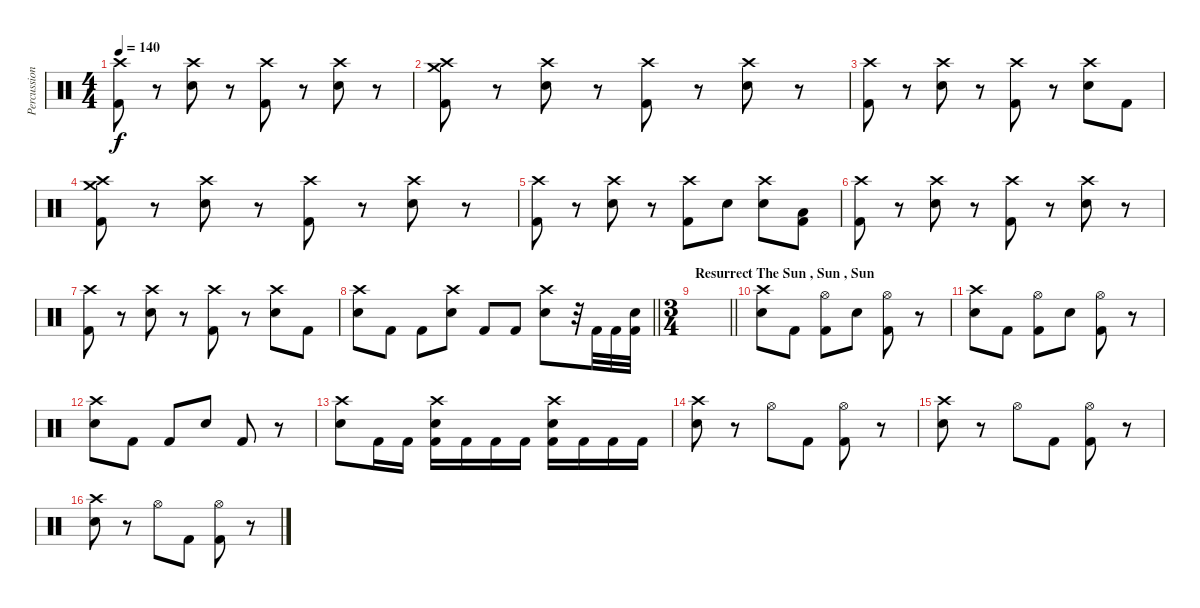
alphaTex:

\track ("Percussion" "Percussion") {instrument percussion}
\staff {score}
\articulation defaults
\ts (4 4)
\tempo 140
\clef neutral
\ks c
("Crash high (hit)" "Kick (hit) 2").8{dy f} r.8 ("Electric Snare (hit)" "Crash high (hit)").8 r.8 ("Crash high (hit)" "Kick (hit) 2").8 r.8 ("Electric Snare (hit)" "Crash high (hit)").8 r.8 |
("Crash high (hit)" "Crash medium (hit)" "Kick (hit) 2").8 r.8 ("Electric Snare (hit)" "Crash high (hit)").8 r.8 ("Crash high (hit)" "Kick (hit) 2").8 r.8 ("Electric Snare (hit)" "Crash high (hit)").8 r.8 |
("Crash high (hit)" "Kick (hit) 2").8 r.8 ("Electric Snare (hit)" "Crash high (hit)").8 r.8 ("Crash high (hit)" "Kick (hit) 2").8 r.8 ("Electric Snare (hit)" "Crash high (hit)").8 "Kick (hit) 2".8 |
("Crash high (hit)" "Crash medium (hit)" "Kick (hit) 2").8 r.8 ("Electric Snare (hit)" "Crash high (hit)").8 r.8 ("Crash high (hit)" "Kick (hit) 2").8 r.8 ("Electric Snare (hit)" "Crash high (hit)").8 r.8 |
("Crash high (hit)" "Kick (hit) 2").8 r.8 ("Electric Snare (hit)" "Crash high (hit)").8 r.8 ("Crash high (hit)" "Kick (hit) 2").8 "Electric Snare (hit)".8 ("Electric Snare (hit)" "Crash high (hit)").8 ("Low Floor Tom (hit)" "Kick (hit) 2").8 |
("Crash high (hit)" "Kick (hit) 2").8 r.8 ("Electric Snare (hit)" "Crash high (hit)").8 r.8 ("Crash high (hit)" "Kick (hit) 2").8 r.8 ("Electric Snare (hit)" "Crash high (hit)").8 r.8 |
("Crash high (hit)" "Kick (hit) 2").8 r.8 ("Electric Snare (hit)" "Crash high (hit)").8 r.8 ("Crash high (hit)" "Kick (hit) 2").8 r.8 ("Electric Snare (hit)" "Crash high (hit)").8 "Kick (hit) 2".8 |
\barLineRight lightlight
("Crash high (hit)" "Electric Snare (hit)").8 "Kick (hit) 2".8 "Kick (hit) 2".8 ("Crash high (hit)" "Electric Snare (hit)").8 "Kick (hit) 2".8 "Kick (hit) 2".8 ("Crash high (hit)" "Electric Snare (hit)").8 r.32 "Kick (hit) 2".32 "Kick (hit) 2".32 ("Electric Snare (hit)" "Kick (hit) 2").32 |
\ts (3 4)
\section ("" "Resurrect The Sun , Sun , Sun")
\barLineRight lightlight
|
("Crash high (hit)" "Electric Snare (hit)").8 "Kick (hit) 2".8 ("Hi-Hat (open)" "Kick (hit) 2").8 "Electric Snare (hit)".8 ("Hi-Hat (open)" "Kick (hit) 2").8 r.8 |
("Crash high (hit)" "Electric Snare (hit)").8 "Kick (hit) 2".8 ("Hi-Hat (open)" "Kick (hit) 2").8 "Electric Snare (hit)".8 ("Hi-Hat (open)" "Kick (hit) 2").8 r.8 |
("Crash high (hit)" "Electric Snare (hit)").8 "Kick (hit) 2".8 "Kick (hit) 2".8 "Electric Snare (hit)".8 "Kick (hit) 2".8 r.8 |
("Crash high (hit)" "Electric Snare (hit)").8 "Kick (hit) 2".16 "Kick (hit) 2".16 ("Crash high (hit)" "Electric Snare (hit)" "Kick (hit) 2").16 "Kick (hit) 2".16 "Kick (hit) 2".16 "Kick (hit) 2".16 ("Crash high (hit)" "Electric Snare (hit)" "Kick (hit) 2").16 "Kick (hit) 2".16 "Kick (hit) 2".16 "Kick (hit) 2".16 |
("Crash high (hit)" "Electric Snare (hit)").8 r.8 "Hi-Hat (open)".8 "Kick (hit) 2".8 ("Hi-Hat (open)" "Kick (hit) 2").8 r.8 |
("Crash high (hit)" "Electric Snare (hit)").8 r.8 "Hi-Hat (open)".8 "Kick (hit) 2".8 ("Hi-Hat (open)" "Kick (hit) 2").8 r.8 |
("Crash high (hit)" "Electric Snare (hit)").8 r.8 "Hi-Hat (open)".8 "Kick (hit) 2".8 ("Hi-Hat (open)" "Kick (hit) 2").8 r.8
